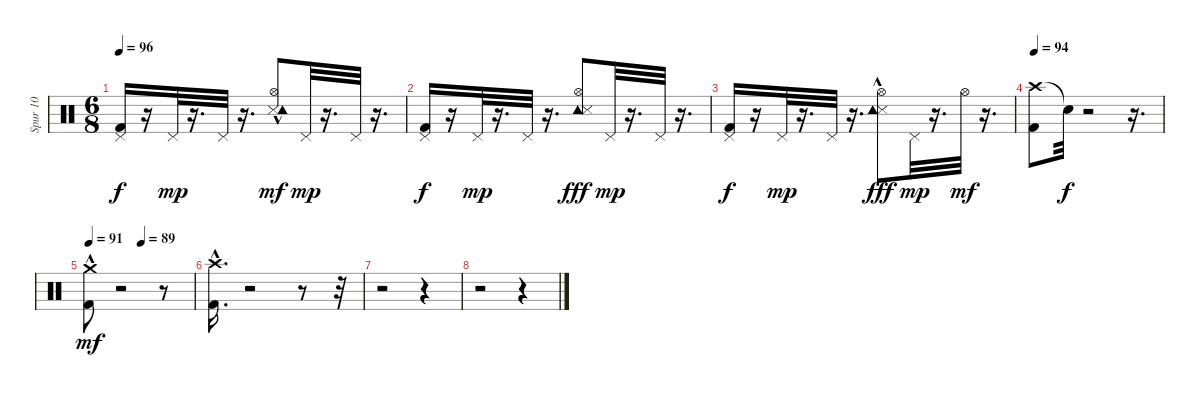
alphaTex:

\track ("Spur 10" "Spur 10") {instrument percussion}
\staff {score}
\articulation defaults
\ts (6 8)
\tempo 96
\clef neutral
\ks c
("Pedal Hi-Hat (hit)" "Kick (hit) 2").16{dy f} r.16 "Pedal Hi-Hat (hit)".32{dy mp} r.16{d} "Pedal Hi-Hat (hit)".32 r.16{d} ("Snare (side stick) 3" "Hi-Hat (open)" "Tambourine (hit)"{hac}).8{dy mf} "Pedal Hi-Hat (hit)".32{dy mp} r.16{d} "Pedal Hi-Hat (hit)".32 r.16{d} |
("Pedal Hi-Hat (hit)" "Kick (hit) 2").16{dy f} r.16 "Pedal Hi-Hat (hit)".32{dy mp} r.16{d} "Pedal Hi-Hat (hit)".32 r.16{d} ("Tambourine (hit)" "Snare (side stick) 3" "Hi-Hat (open)").8{dy fff} "Pedal Hi-Hat (hit)".32{dy mp} r.16{d} "Pedal Hi-Hat (hit)".32 r.16{d} |
("Pedal Hi-Hat (hit)" "Kick (hit) 2").16{dy f} r.16 "Pedal Hi-Hat (hit)".32{dy mp} r.16{d} "Pedal Hi-Hat (hit)".32 r.16{d} ("Snare (side stick) 3" "Hi-Hat (open)" "Tambourine (hit)"{hac}).8{dy fff} "Pedal Hi-Hat (hit)".32{dy mp} r.16{d} "Hi-Hat (open)".32{dy mf} r.16{d} |
\tempo 94
("Crash high (hit)" "Kick (hit) 2").8 "Snare (hit)"{t}.32{dy f} r.2 r.16{d} |
\tempo 91
\tempo (89 0.5)
("Crash medium (hit)"{hac} "Kick (hit) 2").8{dy mf} r.2 r.8 |
("Crash high (hit)"{hac} "Kick (hit) 2"{hac}).16{d} r.2 r.8 r.32 |
r.2 r.4 |
r.2 r.4
